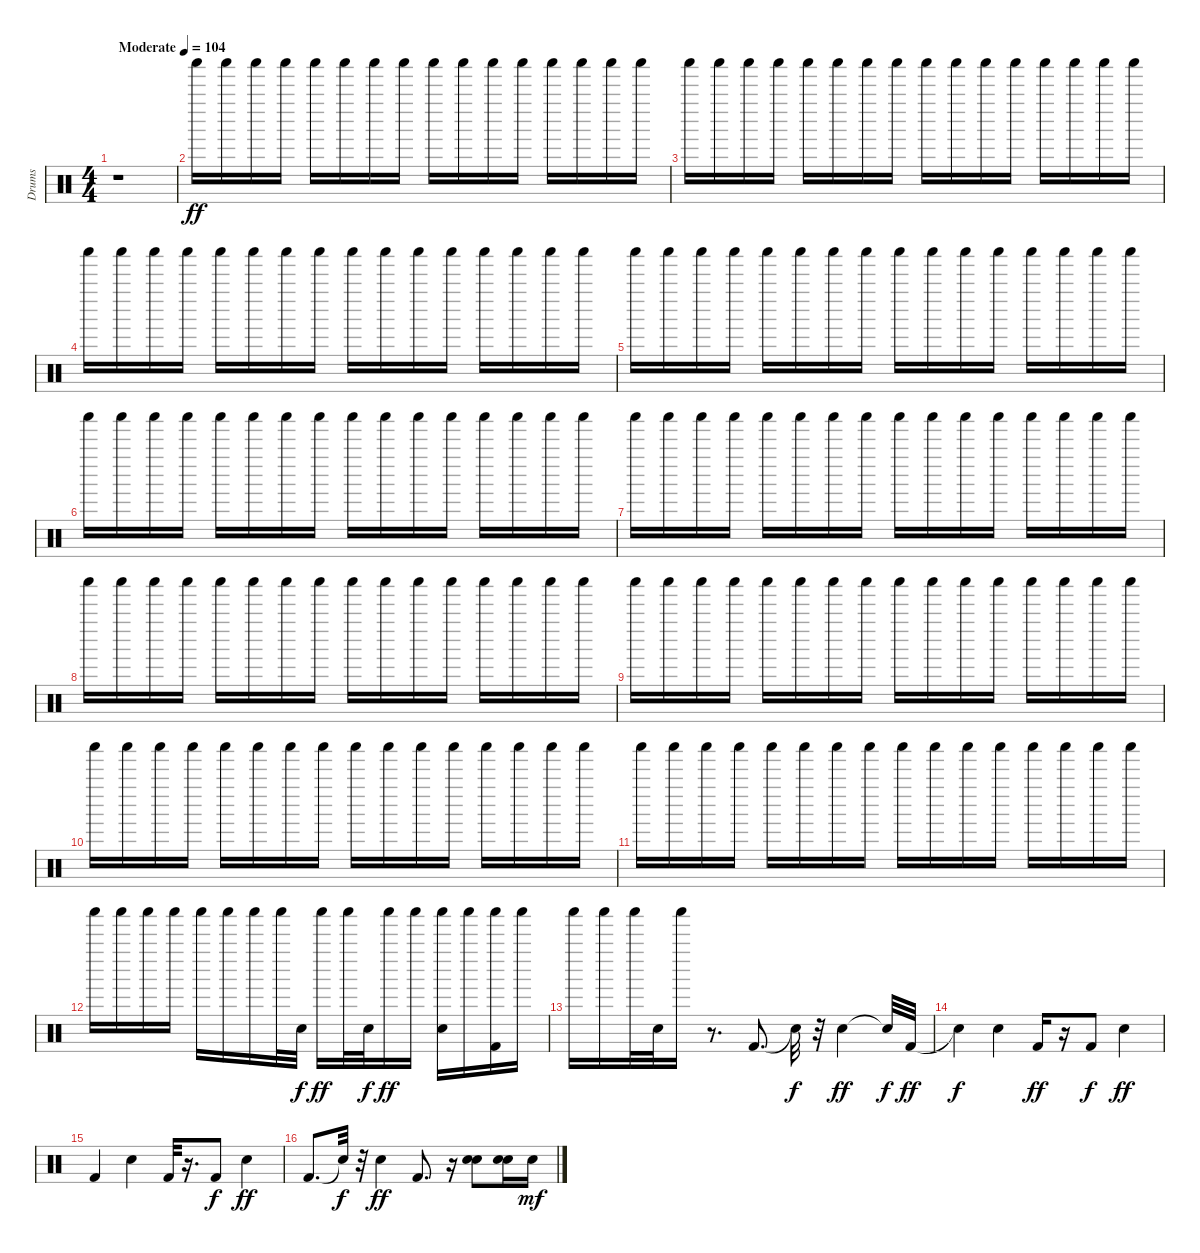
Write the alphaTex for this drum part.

\track ("Drums" "Drums") {instrument percussion}
\staff {score}
\articulation defaults
\ts (4 4)
\tempo (104 "Moderate")
\clef neutral
\ks c
r.1{dy ff} |
"Shaker (hit)".16 "Shaker (hit)".16 "Shaker (hit)".16 "Shaker (hit)".16 "Shaker (hit)".16 "Shaker (hit)".16 "Shaker (hit)".16 "Shaker (hit)".16 "Shaker (hit)".16 "Shaker (hit)".16 "Shaker (hit)".16 "Shaker (hit)".16 "Shaker (hit)".16 "Shaker (hit)".16 "Shaker (hit)".16 "Shaker (hit)".16 |
"Shaker (hit)".16 "Shaker (hit)".16 "Shaker (hit)".16 "Shaker (hit)".16 "Shaker (hit)".16 "Shaker (hit)".16 "Shaker (hit)".16 "Shaker (hit)".16 "Shaker (hit)".16 "Shaker (hit)".16 "Shaker (hit)".16 "Shaker (hit)".16 "Shaker (hit)".16 "Shaker (hit)".16 "Shaker (hit)".16 "Shaker (hit)".16 |
"Shaker (hit)".16 "Shaker (hit)".16 "Shaker (hit)".16 "Shaker (hit)".16 "Shaker (hit)".16 "Shaker (hit)".16 "Shaker (hit)".16 "Shaker (hit)".16 "Shaker (hit)".16 "Shaker (hit)".16 "Shaker (hit)".16 "Shaker (hit)".16 "Shaker (hit)".16 "Shaker (hit)".16 "Shaker (hit)".16 "Shaker (hit)".16 |
"Shaker (hit)".16 "Shaker (hit)".16 "Shaker (hit)".16 "Shaker (hit)".16 "Shaker (hit)".16 "Shaker (hit)".16 "Shaker (hit)".16 "Shaker (hit)".16 "Shaker (hit)".16 "Shaker (hit)".16 "Shaker (hit)".16 "Shaker (hit)".16 "Shaker (hit)".16 "Shaker (hit)".16 "Shaker (hit)".16 "Shaker (hit)".16 |
"Shaker (hit)".16 "Shaker (hit)".16 "Shaker (hit)".16 "Shaker (hit)".16 "Shaker (hit)".16 "Shaker (hit)".16 "Shaker (hit)".16 "Shaker (hit)".16 "Shaker (hit)".16 "Shaker (hit)".16 "Shaker (hit)".16 "Shaker (hit)".16 "Shaker (hit)".16 "Shaker (hit)".16 "Shaker (hit)".16 "Shaker (hit)".16 |
"Shaker (hit)".16 "Shaker (hit)".16 "Shaker (hit)".16 "Shaker (hit)".16 "Shaker (hit)".16 "Shaker (hit)".16 "Shaker (hit)".16 "Shaker (hit)".16 "Shaker (hit)".16 "Shaker (hit)".16 "Shaker (hit)".16 "Shaker (hit)".16 "Shaker (hit)".16 "Shaker (hit)".16 "Shaker (hit)".16 "Shaker (hit)".16 |
"Shaker (hit)".16 "Shaker (hit)".16 "Shaker (hit)".16 "Shaker (hit)".16 "Shaker (hit)".16 "Shaker (hit)".16 "Shaker (hit)".16 "Shaker (hit)".16 "Shaker (hit)".16 "Shaker (hit)".16 "Shaker (hit)".16 "Shaker (hit)".16 "Shaker (hit)".16 "Shaker (hit)".16 "Shaker (hit)".16 "Shaker (hit)".16 |
"Shaker (hit)".16 "Shaker (hit)".16 "Shaker (hit)".16 "Shaker (hit)".16 "Shaker (hit)".16 "Shaker (hit)".16 "Shaker (hit)".16 "Shaker (hit)".16 "Shaker (hit)".16 "Shaker (hit)".16 "Shaker (hit)".16 "Shaker (hit)".16 "Shaker (hit)".16 "Shaker (hit)".16 "Shaker (hit)".16 "Shaker (hit)".16 |
"Shaker (hit)".16 "Shaker (hit)".16 "Shaker (hit)".16 "Shaker (hit)".16 "Shaker (hit)".16 "Shaker (hit)".16 "Shaker (hit)".16 "Shaker (hit)".16 "Shaker (hit)".16 "Shaker (hit)".16 "Shaker (hit)".16 "Shaker (hit)".16 "Shaker (hit)".16 "Shaker (hit)".16 "Shaker (hit)".16 "Shaker (hit)".16 |
"Shaker (hit)".16 "Shaker (hit)".16 "Shaker (hit)".16 "Shaker (hit)".16 "Shaker (hit)".16 "Shaker (hit)".16 "Shaker (hit)".16 "Shaker (hit)".16 "Shaker (hit)".16 "Shaker (hit)".16 "Shaker (hit)".16 "Shaker (hit)".16 "Shaker (hit)".16 "Shaker (hit)".16 "Shaker (hit)".16 "Shaker (hit)".16 |
"Shaker (hit)".16 "Shaker (hit)".16 "Shaker (hit)".16 "Shaker (hit)".16 "Shaker (hit)".16 "Shaker (hit)".16 "Shaker (hit)".16 "Shaker (hit)".32{volume 8} "Electric Snare (hit)".32{dy f volume 16} "Shaker (hit)".16{dy ff volume 8} "Shaker (hit)".32{volume 8} "Electric Snare (hit)".32{dy f volume 16} "Shaker (hit)".16{dy ff volume 8} "Shaker (hit)".16{volume 8} ("Electric Snare (hit)" "Shaker (hit)").16{volume 16} "Shaker (hit)".16{volume 8} ("Shaker (hit)" "Kick (hit) 2").16{volume 16} "Shaker (hit)".16{volume 8} |
"Shaker (hit)".16 "Shaker (hit)".16 "Shaker (hit)".32 "Snare (hit) 2".32{volume 16} "Shaker (hit)".16{volume 8} r.8{d volume 16} "Kick (hit) 2".8{d} "Snare (hit)"{t}.32{dy f} r.32 "Snare (hit) 2".4{dy ff} "Snare (hit)"{t}.32{dy f} "Kick (hit) 2".32{dy ff} |
"Snare (hit)"{t}.4{dy f} "Snare (hit) 2".4 "Kick (hit) 2".16{dy ff} r.16 "Kick (hit) 2".8{dy f} "Snare (hit) 2".4{dy ff} |
"Kick (hit) 2".4 "Snare (hit) 2".4 "Kick (hit) 2".32 r.16{d} "Kick (hit) 2".8{dy f} "Snare (hit) 2".4{dy ff} |
"Kick (hit) 2".8{d} "Snare (hit)"{t}.32{dy f} r.32 "Snare (hit) 2".4{dy ff} "Kick (hit) 2".8{d} r.16 ("Snare (hit) 2" "Snare (hit) 2").8 ("Snare (hit) 2" "Snare (hit) 2").16 "Snare (hit) 2".16{dy mf}
